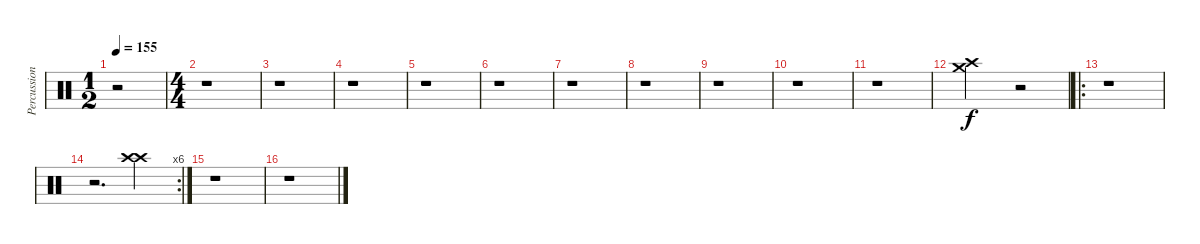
\track ("Percussion" "Percussion") {instrument percussion}
\staff {score}
\articulation defaults
\ts (1 2)
\tempo 155
\clef neutral
\ks c
r.2{dy f} |
\ts (4 4)
r.1 |
r.1 |
r.1 |
r.1 |
r.1 |
r.1 |
r.1 |
r.1 |
r.1 |
r.1 |
("Crash high (hit)" "Crash medium (hit)").2 r.2 |
\ro
r.1 |
\rc 6
r.2{d} ("Crash high (hit)" "Crash high (hit)").4 |
r.1 |
r.1
